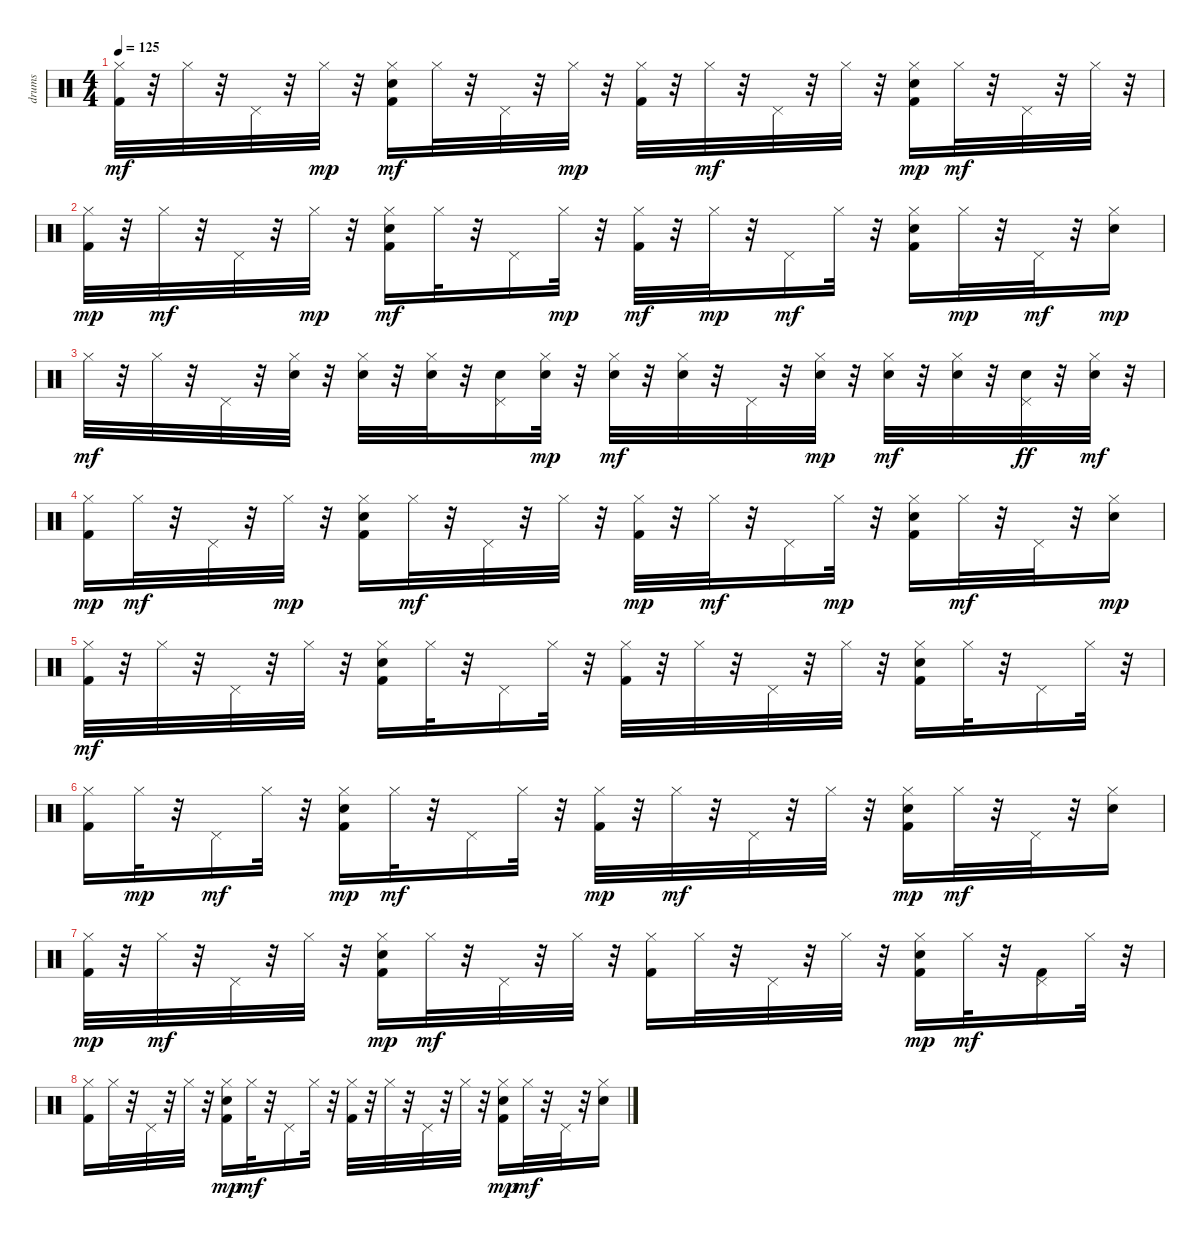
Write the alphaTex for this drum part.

\track ("drums   " "drums   ") {instrument percussion}
\staff {score}
\articulation defaults
\ts (4 4)
\tempo 125
\clef neutral
\ks c
("Kick (hit) 2" "Hi-Hat (closed)").32{dy mf} r.32 "Hi-Hat (closed)".32 r.32 "Pedal Hi-Hat (hit)".32 r.32 "Hi-Hat (closed)".32{dy mp} r.32 ("Kick (hit) 2" "Snare (hit) 2" "Hi-Hat (closed)").16{dy mf} "Hi-Hat (closed)".32 r.32 "Pedal Hi-Hat (hit)".32 r.32 "Hi-Hat (closed)".32{dy mp} r.32 ("Kick (hit) 2" "Hi-Hat (closed)").32 r.32 "Hi-Hat (closed)".32{dy mf} r.32 "Pedal Hi-Hat (hit)".32 r.32 "Hi-Hat (closed)".32 r.32 ("Kick (hit) 2" "Snare (hit) 2" "Hi-Hat (closed)").16{dy mp} "Hi-Hat (closed)".32{dy mf} r.32 "Pedal Hi-Hat (hit)".32 r.32 "Hi-Hat (closed)".32 r.32 |
("Kick (hit) 2" "Hi-Hat (closed)").32{dy mp} r.32 "Hi-Hat (closed)".32{dy mf} r.32 "Pedal Hi-Hat (hit)".32 r.32 "Hi-Hat (closed)".32{dy mp} r.32 ("Kick (hit) 2" "Snare (hit) 2" "Hi-Hat (closed)").16{dy mf} "Hi-Hat (closed)".32 r.32 "Pedal Hi-Hat (hit)".16 "Hi-Hat (closed)".32{dy mp} r.32 ("Kick (hit) 2" "Hi-Hat (closed)").32{dy mf} r.32 "Hi-Hat (closed)".32{dy mp} r.32 "Pedal Hi-Hat (hit)".16{dy mf} "Hi-Hat (closed)".32 r.32 ("Kick (hit) 2" "Snare (hit) 2" "Hi-Hat (closed)").16 "Hi-Hat (closed)".32{dy mp} r.32 "Pedal Hi-Hat (hit)".32{dy mf} r.32 ("Snare (hit) 2" "Hi-Hat (closed)").16{dy mp} |
"Hi-Hat (closed)".32{dy mf} r.32 "Hi-Hat (closed)".32 r.32 "Pedal Hi-Hat (hit)".32 r.32 ("Snare (hit) 2" "Hi-Hat (closed)").32 r.32 ("Snare (hit) 2" "Hi-Hat (closed)").32 r.32 ("Snare (hit) 2" "Hi-Hat (closed)").32 r.32 ("Snare (hit) 2" "Pedal Hi-Hat (hit)").16 ("Snare (hit) 2" "Hi-Hat (closed)").32{dy mp} r.32 ("Snare (hit) 2" "Hi-Hat (closed)").32{dy mf} r.32 ("Snare (hit) 2" "Hi-Hat (closed)").32 r.32 "Pedal Hi-Hat (hit)".32 r.32 ("Snare (hit) 2" "Hi-Hat (closed)").32{dy mp} r.32 ("Snare (hit) 2" "Hi-Hat (closed)").32{dy mf} r.32 ("Snare (hit) 2" "Hi-Hat (closed)").32 r.32 ("Snare (hit) 2" "Pedal Hi-Hat (hit)").32{dy ff} r.32 ("Snare (hit) 2" "Hi-Hat (closed)").32{dy mf} r.32 |
("Kick (hit) 2" "Hi-Hat (closed)").16{dy mp} "Hi-Hat (closed)".32{dy mf} r.32 "Pedal Hi-Hat (hit)".32 r.32 "Hi-Hat (closed)".32{dy mp} r.32 ("Kick (hit) 2" "Snare (hit) 2" "Hi-Hat (closed)").16 "Hi-Hat (closed)".32{dy mf} r.32 "Pedal Hi-Hat (hit)".32 r.32 "Hi-Hat (closed)".32 r.32 ("Kick (hit) 2" "Hi-Hat (closed)").32{dy mp} r.32 "Hi-Hat (closed)".32{dy mf} r.32 "Pedal Hi-Hat (hit)".16 "Hi-Hat (closed)".32{dy mp} r.32 ("Kick (hit) 2" "Snare (hit) 2" "Hi-Hat (closed)").16 "Hi-Hat (closed)".32{dy mf} r.32 "Pedal Hi-Hat (hit)".32 r.32 ("Snare (hit) 2" "Hi-Hat (closed)").16{dy mp} |
("Kick (hit) 2" "Hi-Hat (closed)").32{dy mf} r.32 "Hi-Hat (closed)".32 r.32 "Pedal Hi-Hat (hit)".32 r.32 "Hi-Hat (closed)".32 r.32 ("Kick (hit) 2" "Snare (hit) 2" "Hi-Hat (closed)").16 "Hi-Hat (closed)".32 r.32 "Pedal Hi-Hat (hit)".16 "Hi-Hat (closed)".32 r.32 ("Kick (hit) 2" "Hi-Hat (closed)").32 r.32 "Hi-Hat (closed)".32 r.32 "Pedal Hi-Hat (hit)".32 r.32 "Hi-Hat (closed)".32 r.32 ("Kick (hit) 2" "Snare (hit) 2" "Hi-Hat (closed)").16 "Hi-Hat (closed)".32 r.32 "Pedal Hi-Hat (hit)".16 "Hi-Hat (closed)".32 r.32 |
("Kick (hit) 2" "Hi-Hat (closed)").16 "Hi-Hat (closed)".32{dy mp} r.32 "Pedal Hi-Hat (hit)".16{dy mf} "Hi-Hat (closed)".32 r.32 ("Kick (hit) 2" "Snare (hit) 2" "Hi-Hat (closed)").16{dy mp} "Hi-Hat (closed)".32{dy mf} r.32 "Pedal Hi-Hat (hit)".16 "Hi-Hat (closed)".32 r.32 ("Kick (hit) 2" "Hi-Hat (closed)").32{dy mp} r.32 "Hi-Hat (closed)".32{dy mf} r.32 "Pedal Hi-Hat (hit)".32 r.32 "Hi-Hat (closed)".32 r.32 ("Kick (hit) 2" "Snare (hit) 2" "Hi-Hat (closed)").16{dy mp} "Hi-Hat (closed)".32{dy mf} r.32 "Pedal Hi-Hat (hit)".32 r.32 ("Snare (hit) 2" "Hi-Hat (closed)").16 |
("Kick (hit) 2" "Hi-Hat (closed)").32{dy mp} r.32 "Hi-Hat (closed)".32{dy mf} r.32 "Pedal Hi-Hat (hit)".32 r.32 "Hi-Hat (closed)".32 r.32 ("Kick (hit) 2" "Snare (hit) 2" "Hi-Hat (closed)").16{dy mp} "Hi-Hat (closed)".32{dy mf} r.32 "Pedal Hi-Hat (hit)".32 r.32 "Hi-Hat (closed)".32 r.32 ("Kick (hit) 2" "Hi-Hat (closed)").16 "Hi-Hat (closed)".32 r.32 "Pedal Hi-Hat (hit)".32 r.32 "Hi-Hat (closed)".32 r.32 ("Kick (hit) 2" "Snare (hit) 2" "Hi-Hat (closed)").16{dy mp} "Hi-Hat (closed)".32{dy mf} r.32 ("Kick (hit) 2" "Pedal Hi-Hat (hit)").16 "Hi-Hat (closed)".32 r.32 |
("Kick (hit) 2" "Hi-Hat (closed)").16 "Hi-Hat (closed)".32 r.32 "Pedal Hi-Hat (hit)".32 r.32 "Hi-Hat (closed)".32 r.32 ("Kick (hit) 2" "Snare (hit) 2" "Hi-Hat (closed)").16{dy mp} "Hi-Hat (closed)".32{dy mf} r.32 "Pedal Hi-Hat (hit)".16 "Hi-Hat (closed)".32 r.32 ("Kick (hit) 2" "Hi-Hat (closed)").32 r.32 "Hi-Hat (closed)".32 r.32 "Pedal Hi-Hat (hit)".32 r.32 "Hi-Hat (closed)".32 r.32 ("Kick (hit) 2" "Snare (hit) 2" "Hi-Hat (closed)").16{dy mp} "Hi-Hat (closed)".32{dy mf} r.32 "Pedal Hi-Hat (hit)".32 r.32 ("Snare (hit) 2" "Hi-Hat (closed)").16
